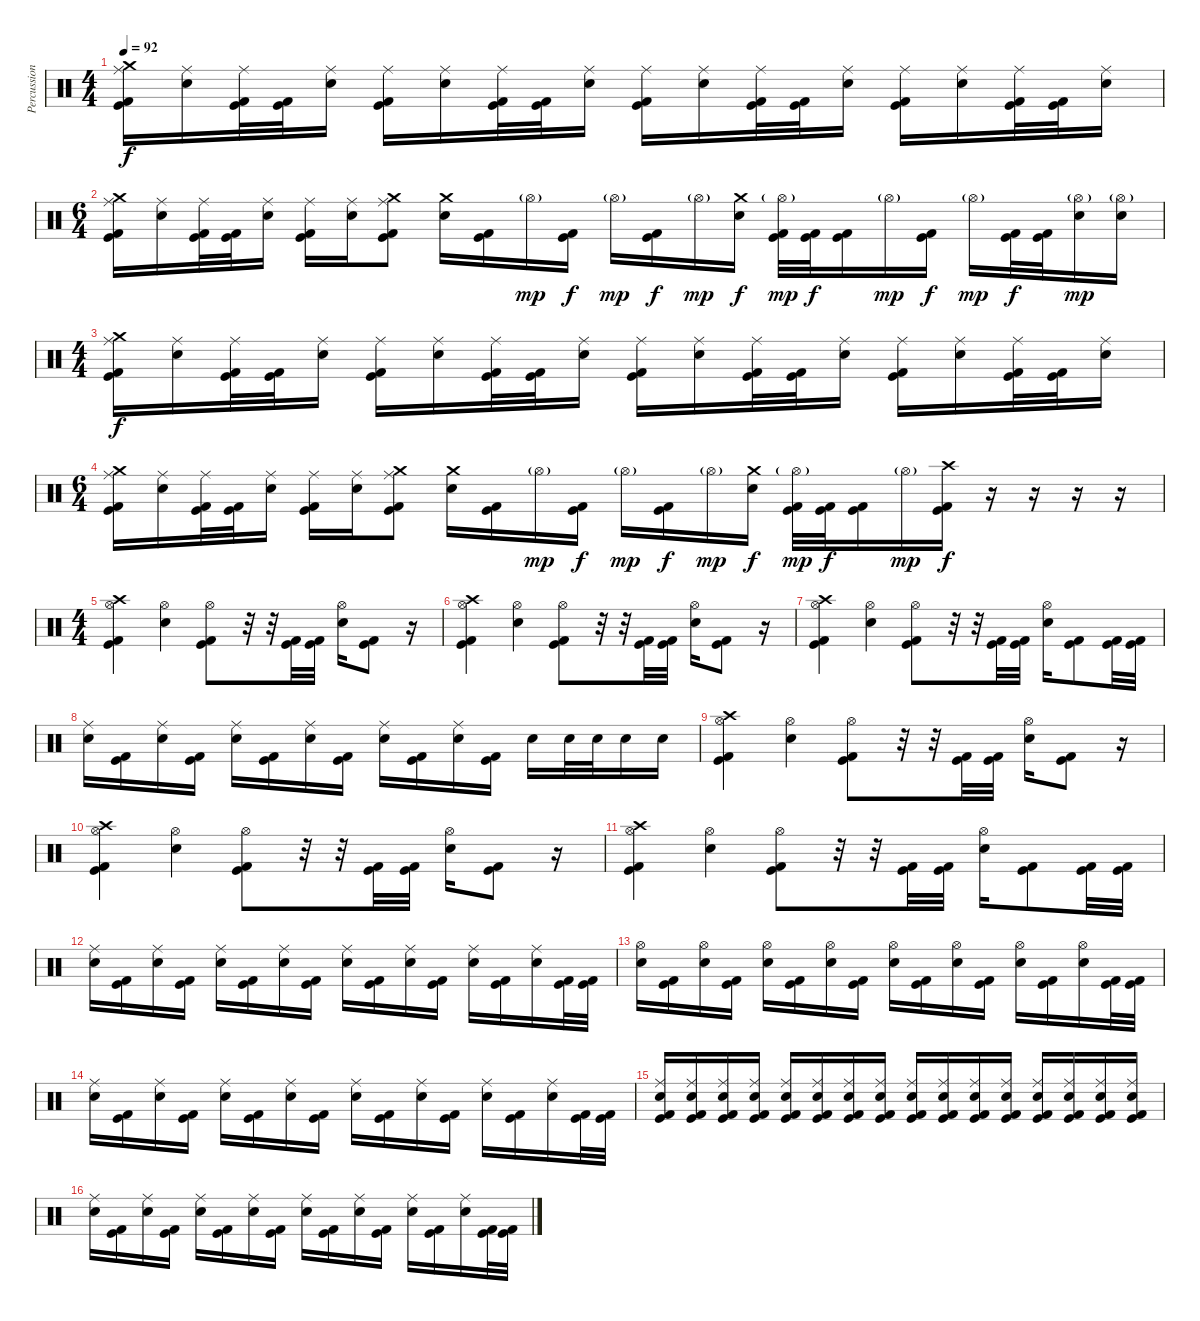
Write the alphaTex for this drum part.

\track ("Percussion" "Percussion") {instrument percussion}
\staff {score}
\articulation defaults
\ts (4 4)
\tempo 92
\clef neutral
\ks c
("Kick (hit) 2" "Ride (middle)" "Crash medium (hit)" "Kick (hit)").16{dy f} ("Electric Snare (hit)" "Ride (middle)").16 ("Kick (hit) 2" "Ride (middle)" "Kick (hit)").32 ("Kick (hit) 2" "Kick (hit)").32 ("Electric Snare (hit)" "Ride (middle)").16 ("Kick (hit) 2" "Ride (middle)" "Kick (hit)").16 ("Electric Snare (hit)" "Ride (middle)").16 ("Kick (hit) 2" "Ride (middle)" "Kick (hit)").32 ("Kick (hit) 2" "Kick (hit)").32 ("Electric Snare (hit)" "Ride (middle)").16 ("Kick (hit) 2" "Ride (middle)" "Kick (hit)").16 ("Electric Snare (hit)" "Ride (middle)").16 ("Kick (hit) 2" "Ride (middle)" "Kick (hit)").32 ("Kick (hit) 2" "Kick (hit)").32 ("Electric Snare (hit)" "Ride (middle)").16 ("Kick (hit) 2" "Ride (middle)" "Kick (hit)").16 ("Electric Snare (hit)" "Ride (middle)").16 ("Kick (hit) 2" "Ride (middle)" "Kick (hit)").32 ("Kick (hit) 2" "Kick (hit)").32 ("Electric Snare (hit)" "Ride (middle)").16 |
\ts (6 4)
("Kick (hit) 2" "Ride (middle)" "Crash medium (hit)" "Kick (hit)").16 ("Electric Snare (hit)" "Ride (middle)").16 ("Kick (hit) 2" "Ride (middle)" "Kick (hit)").32 ("Kick (hit) 2" "Kick (hit)").32 ("Electric Snare (hit)" "Ride (middle)").16 ("Kick (hit) 2" "Ride (middle)" "Kick (hit)").16 ("Electric Snare (hit)" "Ride (middle)").16 ("Kick (hit) 2" "Ride (middle)" "Crash medium (hit)" "Kick (hit)").8 ("Electric Snare (hit)" "Crash medium (hit)").16 ("Kick (hit) 2" "Kick (hit)").16 "Hi-Hat (open)"{g}.16{dy mp} ("Kick (hit) 2" "Kick (hit)").16{dy f} "Hi-Hat (open)"{g}.16{dy mp} ("Kick (hit) 2" "Kick (hit)").16{dy f} "Hi-Hat (open)"{g}.16{dy mp} ("Electric Snare (hit)" "Crash medium (hit)").16{dy f} ("Kick (hit) 2" "Hi-Hat (open)"{g} "Kick (hit)").32{dy mp} ("Kick (hit) 2" "Kick (hit)").32{dy f} ("Kick (hit) 2" "Kick (hit)").16 "Hi-Hat (open)"{g}.16{dy mp} ("Kick (hit) 2" "Kick (hit)").16{dy f} "Hi-Hat (open)"{g}.16{dy mp} ("Kick (hit) 2" "Kick (hit)").32{dy f} ("Kick (hit) 2" "Kick (hit)").32 ("Electric Snare (hit)" "Hi-Hat (open)"{g}).16{dy mp} ("Electric Snare (hit)" "Hi-Hat (open)"{g}).16 |
\ts (4 4)
("Kick (hit) 2" "Ride (middle)" "Crash medium (hit)" "Kick (hit)").16{dy f} ("Electric Snare (hit)" "Ride (middle)").16 ("Kick (hit) 2" "Ride (middle)" "Kick (hit)").32 ("Kick (hit) 2" "Kick (hit)").32 ("Electric Snare (hit)" "Ride (middle)").16 ("Kick (hit) 2" "Ride (middle)" "Kick (hit)").16 ("Electric Snare (hit)" "Ride (middle)").16 ("Kick (hit) 2" "Ride (middle)" "Kick (hit)").32 ("Kick (hit) 2" "Kick (hit)").32 ("Electric Snare (hit)" "Ride (middle)").16 ("Kick (hit) 2" "Ride (middle)" "Kick (hit)").16 ("Electric Snare (hit)" "Ride (middle)").16 ("Kick (hit) 2" "Ride (middle)" "Kick (hit)").32 ("Kick (hit) 2" "Kick (hit)").32 ("Electric Snare (hit)" "Ride (middle)").16 ("Kick (hit) 2" "Ride (middle)" "Kick (hit)").16 ("Electric Snare (hit)" "Ride (middle)").16 ("Kick (hit) 2" "Ride (middle)" "Kick (hit)").32 ("Kick (hit) 2" "Kick (hit)").32 ("Electric Snare (hit)" "Ride (middle)").16 |
\ts (6 4)
("Kick (hit) 2" "Ride (middle)" "Crash medium (hit)" "Kick (hit)").16 ("Electric Snare (hit)" "Ride (middle)").16 ("Kick (hit) 2" "Ride (middle)" "Kick (hit)").32 ("Kick (hit) 2" "Kick (hit)").32 ("Electric Snare (hit)" "Ride (middle)").16 ("Kick (hit) 2" "Ride (middle)" "Kick (hit)").16 ("Electric Snare (hit)" "Ride (middle)").16 ("Kick (hit) 2" "Ride (middle)" "Crash medium (hit)" "Kick (hit)").8 ("Electric Snare (hit)" "Crash medium (hit)").16 ("Kick (hit) 2" "Kick (hit)").16 "Hi-Hat (open)"{g}.16{dy mp} ("Kick (hit) 2" "Kick (hit)").16{dy f} "Hi-Hat (open)"{g}.16{dy mp} ("Kick (hit) 2" "Kick (hit)").16{dy f} "Hi-Hat (open)"{g}.16{dy mp} ("Electric Snare (hit)" "Crash medium (hit)").16{dy f} ("Kick (hit) 2" "Hi-Hat (open)"{g} "Kick (hit)").32{dy mp} ("Kick (hit) 2" "Kick (hit)").32{dy f} ("Kick (hit) 2" "Kick (hit)").16 "Hi-Hat (open)"{g}.16{dy mp} ("Kick (hit) 2" "Crash high (hit)" "Kick (hit)").16{dy f} r.16 r.16 r.16 r.16 |
\ts (4 4)
("Kick (hit) 2" "Hi-Hat (open)" "Crash high (hit)" "Kick (hit)").4 ("Electric Snare (hit)" "Hi-Hat (open)").4 ("Kick (hit) 2" "Hi-Hat (open)" "Kick (hit)").8 r.32 r.32 ("Kick (hit) 2" "Kick (hit)").32 ("Kick (hit) 2" "Kick (hit)").32 ("Electric Snare (hit)" "Hi-Hat (open)").16 ("Kick (hit) 2" "Kick (hit)").8 r.16 |
("Kick (hit) 2" "Hi-Hat (open)" "Crash high (hit)" "Kick (hit)").4 ("Electric Snare (hit)" "Hi-Hat (open)").4 ("Kick (hit) 2" "Hi-Hat (open)" "Kick (hit)").8 r.32 r.32 ("Kick (hit) 2" "Kick (hit)").32 ("Kick (hit) 2" "Kick (hit)").32 ("Electric Snare (hit)" "Hi-Hat (open)").16 ("Kick (hit) 2" "Kick (hit)").8 r.16 |
("Kick (hit) 2" "Hi-Hat (open)" "Crash high (hit)" "Kick (hit)").4 ("Electric Snare (hit)" "Hi-Hat (open)").4 ("Kick (hit) 2" "Hi-Hat (open)" "Kick (hit)").8 r.32 r.32 ("Kick (hit) 2" "Kick (hit)").32 ("Kick (hit) 2" "Kick (hit)").32 ("Electric Snare (hit)" "Hi-Hat (open)").16 ("Kick (hit) 2" "Kick (hit)").8 ("Kick (hit) 2" "Kick (hit)").32 ("Kick (hit) 2" "Kick (hit)").32 |
("Electric Snare (hit)" "Ride (middle)").16 ("Kick (hit) 2" "Kick (hit)").16 ("Electric Snare (hit)" "Ride (middle)").16 ("Kick (hit) 2" "Kick (hit)").16 ("Electric Snare (hit)" "Ride (middle)").16 ("Kick (hit) 2" "Kick (hit)").16 ("Electric Snare (hit)" "Ride (middle)").16 ("Kick (hit) 2" "Kick (hit)").16 ("Electric Snare (hit)" "Ride (middle)").16 ("Kick (hit) 2" "Kick (hit)").16 ("Electric Snare (hit)" "Ride (middle)").16 ("Kick (hit) 2" "Kick (hit)").16 "Electric Snare (hit)".16 "Electric Snare (hit)".32 "Electric Snare (hit)".32 "Electric Snare (hit)".16 "Electric Snare (hit)".16 |
("Kick (hit) 2" "Hi-Hat (open)" "Crash high (hit)" "Kick (hit)").4 ("Electric Snare (hit)" "Hi-Hat (open)").4 ("Kick (hit) 2" "Hi-Hat (open)" "Kick (hit)").8 r.32 r.32 ("Kick (hit) 2" "Kick (hit)").32 ("Kick (hit) 2" "Kick (hit)").32 ("Electric Snare (hit)" "Hi-Hat (open)").16 ("Kick (hit) 2" "Kick (hit)").8 r.16 |
("Kick (hit) 2" "Hi-Hat (open)" "Crash high (hit)" "Kick (hit)").4 ("Electric Snare (hit)" "Hi-Hat (open)").4 ("Kick (hit) 2" "Hi-Hat (open)" "Kick (hit)").8 r.32 r.32 ("Kick (hit) 2" "Kick (hit)").32 ("Kick (hit) 2" "Kick (hit)").32 ("Electric Snare (hit)" "Hi-Hat (open)").16 ("Kick (hit) 2" "Kick (hit)").8 r.16 |
("Kick (hit) 2" "Hi-Hat (open)" "Crash high (hit)" "Kick (hit)").4 ("Electric Snare (hit)" "Hi-Hat (open)").4 ("Kick (hit) 2" "Hi-Hat (open)" "Kick (hit)").8 r.32 r.32 ("Kick (hit) 2" "Kick (hit)").32 ("Kick (hit) 2" "Kick (hit)").32 ("Electric Snare (hit)" "Hi-Hat (open)").16 ("Kick (hit) 2" "Kick (hit)").8 ("Kick (hit) 2" "Kick (hit)").32 ("Kick (hit) 2" "Kick (hit)").32 |
("Electric Snare (hit)" "Ride (middle)").16 ("Kick (hit) 2" "Kick (hit)").16 ("Electric Snare (hit)" "Ride (middle)").16 ("Kick (hit) 2" "Kick (hit)").16 ("Electric Snare (hit)" "Ride (middle)").16 ("Kick (hit) 2" "Kick (hit)").16 ("Electric Snare (hit)" "Ride (middle)").16 ("Kick (hit) 2" "Kick (hit)").16 ("Electric Snare (hit)" "Ride (middle)").16 ("Kick (hit) 2" "Kick (hit)").16 ("Electric Snare (hit)" "Ride (middle)").16 ("Kick (hit) 2" "Kick (hit)").16 ("Electric Snare (hit)" "Ride (middle)").16 ("Kick (hit) 2" "Kick (hit)").16 ("Electric Snare (hit)" "Ride (middle)").16 ("Kick (hit) 2" "Kick (hit)").32 ("Kick (hit) 2" "Kick (hit)").32 |
("Electric Snare (hit)" "Hi-Hat (open)").16 ("Kick (hit) 2" "Kick (hit)").16 ("Electric Snare (hit)" "Hi-Hat (open)").16 ("Kick (hit) 2" "Kick (hit)").16 ("Electric Snare (hit)" "Hi-Hat (open)").16 ("Kick (hit) 2" "Kick (hit)").16 ("Electric Snare (hit)" "Hi-Hat (open)").16 ("Kick (hit) 2" "Kick (hit)").16 ("Electric Snare (hit)" "Hi-Hat (open)").16 ("Kick (hit) 2" "Kick (hit)").16 ("Electric Snare (hit)" "Hi-Hat (open)").16 ("Kick (hit) 2" "Kick (hit)").16 ("Electric Snare (hit)" "Hi-Hat (open)").16 ("Kick (hit) 2" "Kick (hit)").16 ("Electric Snare (hit)" "Hi-Hat (open)").16 ("Kick (hit) 2" "Kick (hit)").32 ("Kick (hit) 2" "Kick (hit)").32 |
("Electric Snare (hit)" "Ride (middle)").16 ("Kick (hit) 2" "Kick (hit)").16 ("Electric Snare (hit)" "Ride (middle)").16 ("Kick (hit) 2" "Kick (hit)").16 ("Electric Snare (hit)" "Ride (middle)").16 ("Kick (hit) 2" "Kick (hit)").16 ("Electric Snare (hit)" "Ride (middle)").16 ("Kick (hit) 2" "Kick (hit)").16 ("Electric Snare (hit)" "Ride (middle)").16 ("Kick (hit) 2" "Kick (hit)").16 ("Electric Snare (hit)" "Ride (middle)").16 ("Kick (hit) 2" "Kick (hit)").16 ("Electric Snare (hit)" "Ride (middle)").16 ("Kick (hit) 2" "Kick (hit)").16 ("Electric Snare (hit)" "Ride (middle)").16 ("Kick (hit) 2" "Kick (hit)").32 ("Kick (hit) 2" "Kick (hit)").32 |
("Kick (hit) 2" "Ride (middle)" "Kick (hit)" "Electric Snare (hit)").16 ("Kick (hit) 2" "Ride (middle)" "Kick (hit)" "Electric Snare (hit)").16 ("Kick (hit) 2" "Ride (middle)" "Kick (hit)" "Electric Snare (hit)").16 ("Kick (hit) 2" "Ride (middle)" "Kick (hit)" "Electric Snare (hit)").16 ("Kick (hit) 2" "Ride (middle)" "Kick (hit)" "Electric Snare (hit)").16 ("Kick (hit) 2" "Ride (middle)" "Kick (hit)" "Electric Snare (hit)").16 ("Kick (hit) 2" "Ride (middle)" "Kick (hit)" "Electric Snare (hit)").16 ("Kick (hit) 2" "Ride (middle)" "Kick (hit)" "Electric Snare (hit)").16 ("Kick (hit) 2" "Ride (middle)" "Kick (hit)" "Electric Snare (hit)").16 ("Kick (hit) 2" "Ride (middle)" "Kick (hit)" "Electric Snare (hit)").16 ("Kick (hit) 2" "Ride (middle)" "Kick (hit)" "Electric Snare (hit)").16 ("Kick (hit) 2" "Ride (middle)" "Kick (hit)" "Electric Snare (hit)").16 ("Kick (hit) 2" "Ride (middle)" "Kick (hit)" "Electric Snare (hit)").16 ("Kick (hit) 2" "Ride (middle)" "Kick (hit)" "Electric Snare (hit)").16 ("Kick (hit) 2" "Ride (middle)" "Kick (hit)" "Electric Snare (hit)").16 ("Kick (hit) 2" "Ride (middle)" "Kick (hit)" "Electric Snare (hit)").16 |
("Electric Snare (hit)" "Ride (middle)").16 ("Kick (hit) 2" "Kick (hit)").16 ("Electric Snare (hit)" "Ride (middle)").16 ("Kick (hit) 2" "Kick (hit)").16 ("Electric Snare (hit)" "Ride (middle)").16 ("Kick (hit) 2" "Kick (hit)").16 ("Electric Snare (hit)" "Ride (middle)").16 ("Kick (hit) 2" "Kick (hit)").16 ("Electric Snare (hit)" "Ride (middle)").16 ("Kick (hit) 2" "Kick (hit)").16 ("Electric Snare (hit)" "Ride (middle)").16 ("Kick (hit) 2" "Kick (hit)").16 ("Electric Snare (hit)" "Ride (middle)").16 ("Kick (hit) 2" "Kick (hit)").16 ("Electric Snare (hit)" "Ride (middle)").16 ("Kick (hit) 2" "Kick (hit)").32 ("Kick (hit) 2" "Kick (hit)").32
